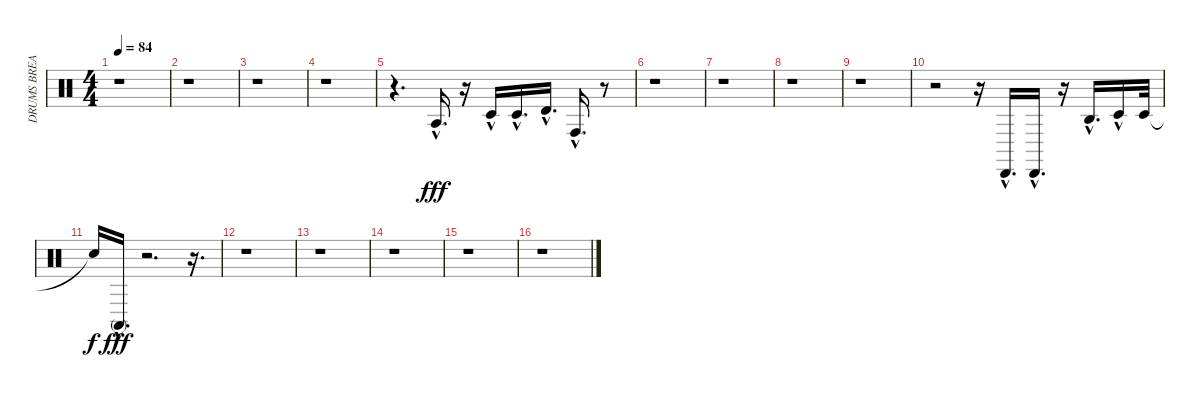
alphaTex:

\track ("DRUMS BREAK" "DRUMS BREA") {instrument percussion}
\staff {score}
\articulation defaults
\ts (4 4)
\tempo 84
\clef neutral
\ks c
r.1{dy fff} |
r.1 |
r.1 |
r.1 |
r.4{d} "Agogo tow (hit)"{hac}.16{d} r.16 "Timbale low (hit)"{hac}.16 "Timbale low (hit)"{hac}.16{d} "Timbale high (hit)"{hac}.16{d} "Conga high (hit)"{hac}.16{d} r.8 |
r.1 |
r.1 |
r.1 |
r.1 |
r.2 r.16 "Cabasa (hit)"{hac}.16{d} "Cabasa (hit)"{hac}.16{d} r.16 "Agogo high (hit)"{hac}.16{d} "Timbale low (hit)"{hac}.16 "Timbale low (hit)".32 |
"Snare (hit)"{t}.16{dy f} "Conga high (mute)"{hac}.16{d dy fff} r.2{d} r.16{d} |
r.1 |
r.1 |
r.1 |
r.1 |
r.1
